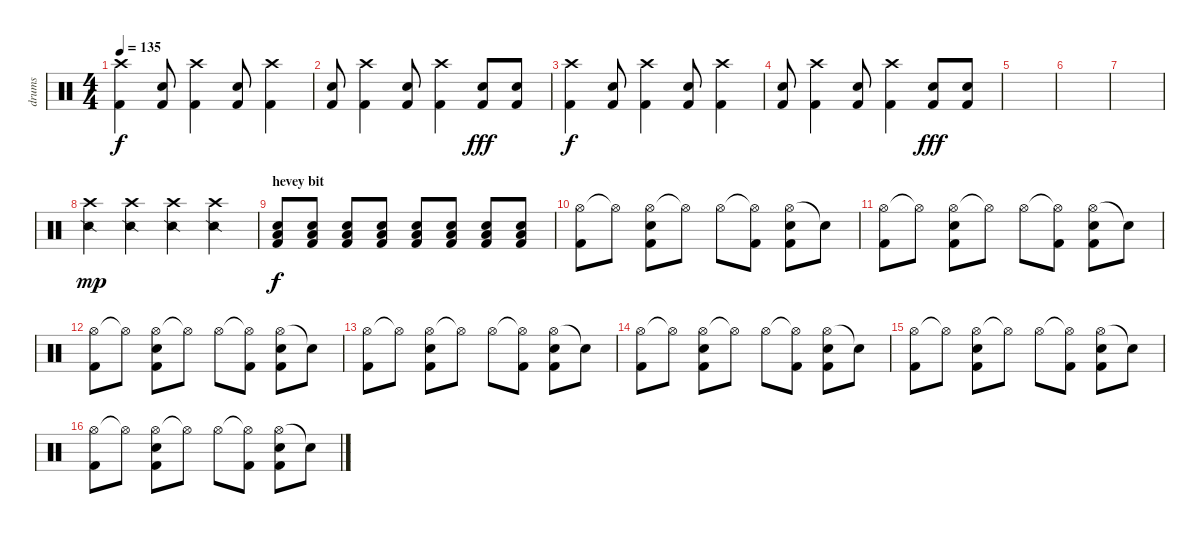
\track ("drums" "drums") {instrument percussion}
\staff {score}
\articulation defaults
\ts (4 4)
\tempo 135
\clef neutral
\ks c
("Crash high (hit)" "Kick (hit) 2").4{dy f} ("Electric Snare (hit)" "Kick (hit) 2").8 ("Crash high (hit)" "Kick (hit) 2").4 ("Electric Snare (hit)" "Kick (hit) 2").8 ("Crash high (hit)" "Kick (hit) 2").4 |
("Electric Snare (hit)" "Kick (hit) 2").8 ("Crash high (hit)" "Kick (hit) 2").4 ("Electric Snare (hit)" "Kick (hit) 2").8 ("Crash high (hit)" "Kick (hit) 2").4 ("Electric Snare (hit)" "Kick (hit) 2").8{dy fff} ("Electric Snare (hit)" "Kick (hit) 2").8 |
("Crash high (hit)" "Kick (hit) 2").4{dy f} ("Electric Snare (hit)" "Kick (hit) 2").8 ("Crash high (hit)" "Kick (hit) 2").4 ("Electric Snare (hit)" "Kick (hit) 2").8 ("Crash high (hit)" "Kick (hit) 2").4 |
("Electric Snare (hit)" "Kick (hit) 2").8 ("Crash high (hit)" "Kick (hit) 2").4 ("Electric Snare (hit)" "Kick (hit) 2").8 ("Crash high (hit)" "Kick (hit) 2").4 ("Electric Snare (hit)" "Kick (hit) 2").8{dy fff} ("Electric Snare (hit)" "Kick (hit) 2").8 |
|
|
|
("Snare (side stick) 2" "Crash high (hit)").4{dy mp} ("Snare (side stick) 2" "Crash high (hit)").4 ("Snare (side stick) 2" "Crash high (hit)").4 ("Snare (side stick) 2" "Crash high (hit)").4 |
\section ("" "hevey bit")
("Low Tom (hit)" "Electric Snare (hit)" "Kick (hit) 2").8{dy f} ("Low Tom (hit)" "Electric Snare (hit)" "Kick (hit) 2").8 ("Low Tom (hit)" "Electric Snare (hit)" "Kick (hit) 2").8 ("Low Tom (hit)" "Electric Snare (hit)" "Kick (hit) 2").8 ("Low Tom (hit)" "Electric Snare (hit)" "Kick (hit) 2").8 ("Low Tom (hit)" "Electric Snare (hit)" "Kick (hit) 2").8 ("Low Tom (hit)" "Electric Snare (hit)" "Kick (hit) 2").8 ("Low Tom (hit)" "Electric Snare (hit)" "Kick (hit) 2").8 |
("Hi-Hat (open)" "Kick (hit) 2").8 "Hi-Hat (open)"{t}.8 ("Hi-Hat (open)" "Electric Snare (hit)" "Kick (hit) 2").8 "Hi-Hat (open)"{t}.8 "Hi-Hat (open)".8 ("Hi-Hat (open)"{t} "Kick (hit) 2").8 ("Hi-Hat (open)" "Electric Snare (hit)" "Kick (hit) 2").8 "Snare (hit)"{t}.8 |
("Hi-Hat (open)" "Kick (hit) 2").8 "Hi-Hat (open)"{t}.8 ("Hi-Hat (open)" "Electric Snare (hit)" "Kick (hit) 2").8 "Hi-Hat (open)"{t}.8 "Hi-Hat (open)".8 ("Hi-Hat (open)"{t} "Kick (hit) 2").8 ("Hi-Hat (open)" "Electric Snare (hit)" "Kick (hit) 2").8 "Snare (hit)"{t}.8 |
("Hi-Hat (open)" "Kick (hit) 2").8 "Hi-Hat (open)"{t}.8 ("Hi-Hat (open)" "Electric Snare (hit)" "Kick (hit) 2").8 "Hi-Hat (open)"{t}.8 "Hi-Hat (open)".8 ("Hi-Hat (open)"{t} "Kick (hit) 2").8 ("Hi-Hat (open)" "Electric Snare (hit)" "Kick (hit) 2").8 "Snare (hit)"{t}.8 |
("Hi-Hat (open)" "Kick (hit) 2").8 "Hi-Hat (open)"{t}.8 ("Hi-Hat (open)" "Electric Snare (hit)" "Kick (hit) 2").8 "Hi-Hat (open)"{t}.8 "Hi-Hat (open)".8 ("Hi-Hat (open)"{t} "Kick (hit) 2").8 ("Hi-Hat (open)" "Electric Snare (hit)" "Kick (hit) 2").8 "Snare (hit)"{t}.8 |
("Hi-Hat (open)" "Kick (hit) 2").8 "Hi-Hat (open)"{t}.8 ("Hi-Hat (open)" "Electric Snare (hit)" "Kick (hit) 2").8 "Hi-Hat (open)"{t}.8 "Hi-Hat (open)".8 ("Hi-Hat (open)"{t} "Kick (hit) 2").8 ("Hi-Hat (open)" "Electric Snare (hit)" "Kick (hit) 2").8 "Snare (hit)"{t}.8 |
("Hi-Hat (open)" "Kick (hit) 2").8 "Hi-Hat (open)"{t}.8 ("Hi-Hat (open)" "Electric Snare (hit)" "Kick (hit) 2").8 "Hi-Hat (open)"{t}.8 "Hi-Hat (open)".8 ("Hi-Hat (open)"{t} "Kick (hit) 2").8 ("Hi-Hat (open)" "Electric Snare (hit)" "Kick (hit) 2").8 "Snare (hit)"{t}.8 |
("Hi-Hat (open)" "Kick (hit) 2").8 "Hi-Hat (open)"{t}.8 ("Hi-Hat (open)" "Electric Snare (hit)" "Kick (hit) 2").8 "Hi-Hat (open)"{t}.8 "Hi-Hat (open)".8 ("Hi-Hat (open)"{t} "Kick (hit) 2").8 ("Hi-Hat (open)" "Electric Snare (hit)" "Kick (hit) 2").8 "Snare (hit)"{t}.8
